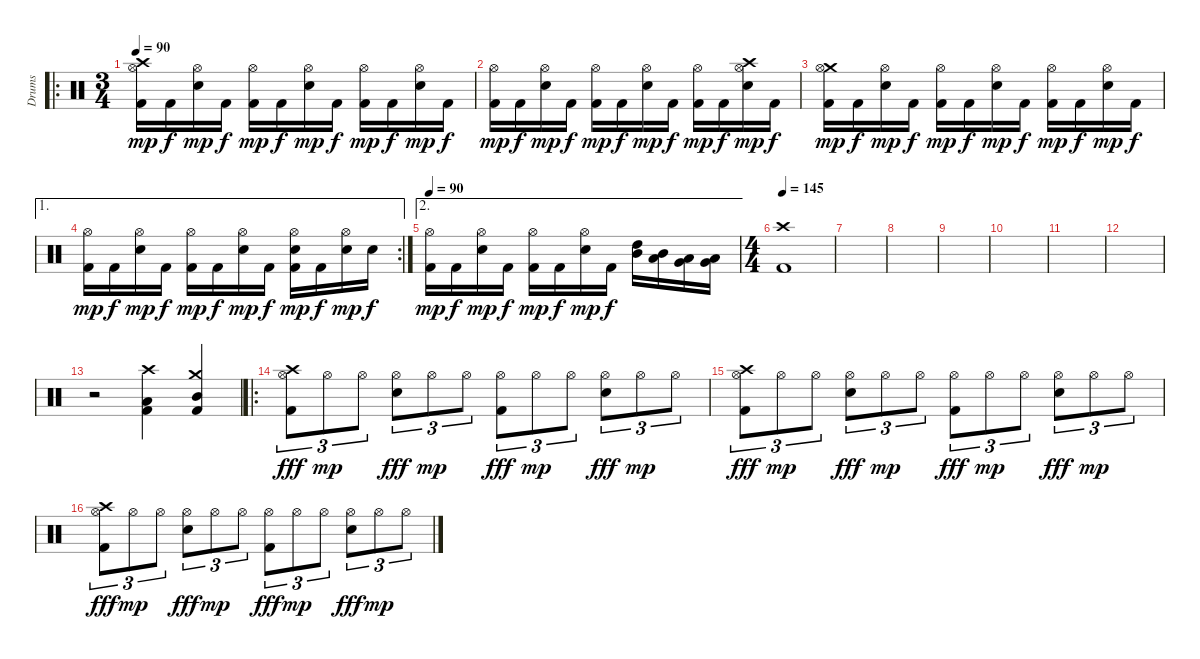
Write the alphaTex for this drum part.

\track ("Drums" "Drums") {instrument percussion}
\staff {score}
\articulation defaults
\ro
\ts (3 4)
\tempo 90
\clef neutral
\ks c
("Crash high (hit)" "Hi-Hat (open)" "Kick (hit) 2").16{dy mp} "Kick (hit) 2".16{dy f} ("Hi-Hat (open)" "Electric Snare (hit)").16{dy mp} "Kick (hit) 2".16{dy f} ("Hi-Hat (open)" "Kick (hit) 2").16{dy mp} "Kick (hit) 2".16{dy f} ("Hi-Hat (open)" "Electric Snare (hit)").16{dy mp} "Kick (hit) 2".16{dy f} ("Hi-Hat (open)" "Kick (hit) 2").16{dy mp} "Kick (hit) 2".16{dy f} ("Hi-Hat (open)" "Electric Snare (hit)").16{dy mp} "Kick (hit) 2".16{dy f} |
("Hi-Hat (open)" "Kick (hit) 2").16{dy mp} "Kick (hit) 2".16{dy f} ("Hi-Hat (open)" "Electric Snare (hit)").16{dy mp} "Kick (hit) 2".16{dy f} ("Hi-Hat (open)" "Kick (hit) 2").16{dy mp} "Kick (hit) 2".16{dy f} ("Hi-Hat (open)" "Electric Snare (hit)").16{dy mp} "Kick (hit) 2".16{dy f} ("Hi-Hat (open)" "Kick (hit) 2").16{dy mp} "Kick (hit) 2".16{dy f} ("Crash high (hit)" "Hi-Hat (open)" "Electric Snare (hit)").16{dy mp} "Kick (hit) 2".16{dy f} |
("Crash medium (hit)" "Hi-Hat (open)" "Kick (hit) 2").16{dy mp} "Kick (hit) 2".16{dy f} ("Hi-Hat (open)" "Electric Snare (hit)").16{dy mp} "Kick (hit) 2".16{dy f} ("Hi-Hat (open)" "Kick (hit) 2").16{dy mp} "Kick (hit) 2".16{dy f} ("Hi-Hat (open)" "Electric Snare (hit)").16{dy mp} "Kick (hit) 2".16{dy f} ("Hi-Hat (open)" "Kick (hit) 2").16{dy mp} "Kick (hit) 2".16{dy f} ("Hi-Hat (open)" "Electric Snare (hit)").16{dy mp} "Kick (hit) 2".16{dy f} |
\ae 1
\rc 2
("Hi-Hat (open)" "Kick (hit) 2").16{dy mp} "Kick (hit) 2".16{dy f} ("Hi-Hat (open)" "Electric Snare (hit)").16{dy mp} "Kick (hit) 2".16{dy f} ("Hi-Hat (open)" "Kick (hit) 2").16{dy mp} "Kick (hit) 2".16{dy f} ("Hi-Hat (open)" "Electric Snare (hit)").16{dy mp} "Kick (hit) 2".16{dy f} ("Hi-Hat (open)" "Electric Snare (hit)" "Kick (hit) 2").16{dy mp} "Kick (hit) 2".16{dy f} ("Hi-Hat (open)" "Electric Snare (hit)").16{dy mp} "Electric Snare (hit)".16{dy f} |
\ae 2
\tempo 90
("Hi-Hat (open)" "Kick (hit) 2").16{dy mp} "Kick (hit) 2".16{dy f} ("Hi-Hat (open)" "Electric Snare (hit)").16{dy mp} "Kick (hit) 2".16{dy f} ("Hi-Hat (open)" "Kick (hit) 2").16{dy mp} "Kick (hit) 2".16{dy f} ("Hi-Hat (open)" "Electric Snare (hit)").16{dy mp} "Kick (hit) 2".16{dy f} ("Mid Tom (hit)" "High Tom (hit)").16 ("Low Tom (hit)" "Mid Tom (hit)").16 ("Very Low Tom (hit)" "Low Tom (hit)").16 ("Low Floor Tom (hit)" "Very Low Tom (hit)").16 |
\ts (4 4)
\tempo 140
\tempo 145
("Crash high (hit)" "Kick (hit) 2").1 |
|
|
|
|
|
|
r.2 ("Low Tom (hit)" "Kick (hit) 2" "Crash high (hit)").4 ("Mid Tom (hit)" "Kick (hit) 2" "Crash medium (hit)").4 |
\ro
("Crash high (hit)" "Hi-Hat (open)" "Kick (hit) 2").8{tu (3 2) dy fff volume 13} "Hi-Hat (open)".8{tu (3 2) dy mp} "Hi-Hat (open)".8{tu (3 2)} ("Hi-Hat (open)" "Electric Snare (hit)").8{tu (3 2) dy fff} "Hi-Hat (open)".8{tu (3 2) dy mp} "Hi-Hat (open)".8{tu (3 2)} ("Hi-Hat (open)" "Kick (hit) 2").8{tu (3 2) dy fff} "Hi-Hat (open)".8{tu (3 2) dy mp} "Hi-Hat (open)".8{tu (3 2)} ("Hi-Hat (open)" "Electric Snare (hit)").8{tu (3 2) dy fff} "Hi-Hat (open)".8{tu (3 2) dy mp} "Hi-Hat (open)".8{tu (3 2)} |
("Crash high (hit)" "Hi-Hat (open)" "Kick (hit) 2").8{tu (3 2) dy fff} "Hi-Hat (open)".8{tu (3 2) dy mp} "Hi-Hat (open)".8{tu (3 2)} ("Hi-Hat (open)" "Electric Snare (hit)").8{tu (3 2) dy fff} "Hi-Hat (open)".8{tu (3 2) dy mp} "Hi-Hat (open)".8{tu (3 2)} ("Hi-Hat (open)" "Kick (hit) 2").8{tu (3 2) dy fff} "Hi-Hat (open)".8{tu (3 2) dy mp} "Hi-Hat (open)".8{tu (3 2)} ("Hi-Hat (open)" "Electric Snare (hit)").8{tu (3 2) dy fff} "Hi-Hat (open)".8{tu (3 2) dy mp} "Hi-Hat (open)".8{tu (3 2)} |
("Crash high (hit)" "Hi-Hat (open)" "Kick (hit) 2").8{tu (3 2) dy fff} "Hi-Hat (open)".8{tu (3 2) dy mp} "Hi-Hat (open)".8{tu (3 2)} ("Hi-Hat (open)" "Electric Snare (hit)").8{tu (3 2) dy fff} "Hi-Hat (open)".8{tu (3 2) dy mp} "Hi-Hat (open)".8{tu (3 2)} ("Hi-Hat (open)" "Kick (hit) 2").8{tu (3 2) dy fff} "Hi-Hat (open)".8{tu (3 2) dy mp} "Hi-Hat (open)".8{tu (3 2)} ("Hi-Hat (open)" "Electric Snare (hit)").8{tu (3 2) dy fff} "Hi-Hat (open)".8{tu (3 2) dy mp} "Hi-Hat (open)".8{tu (3 2)}
